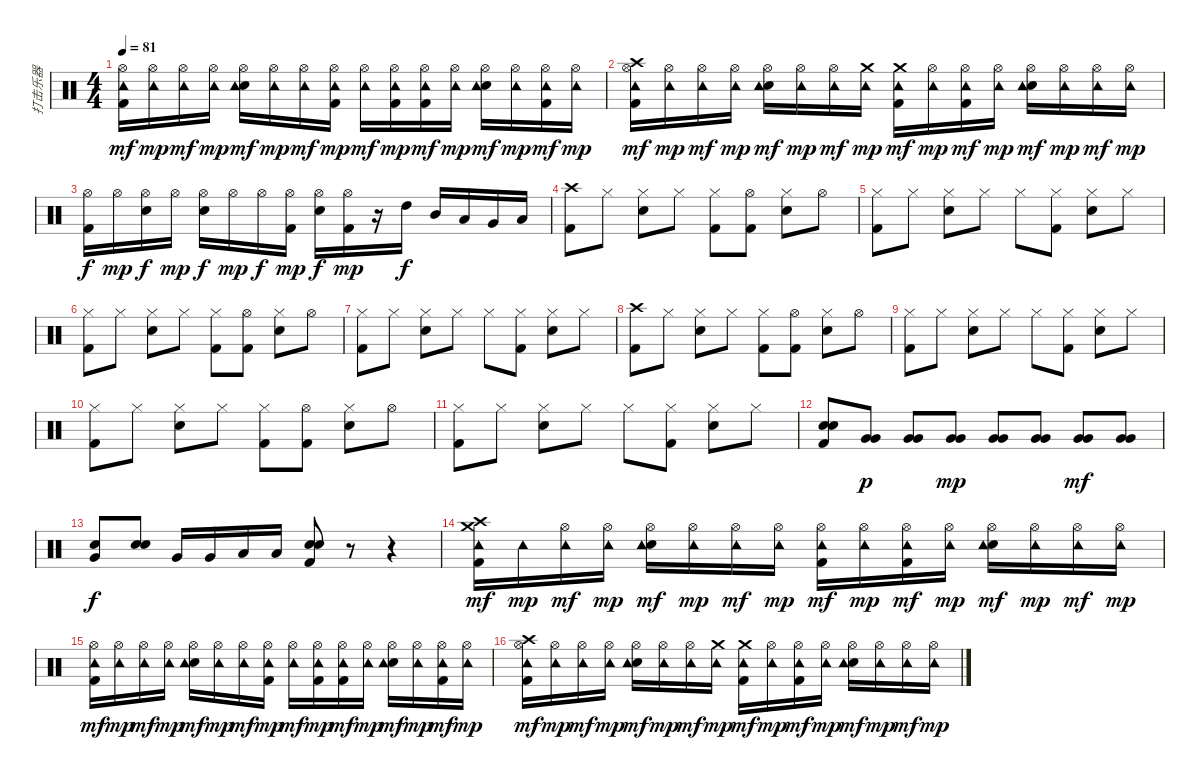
\track ("打击乐器" "打击乐器") {instrument percussion}
\staff {score}
\articulation defaults
\ts (4 4)
\tempo 81
\clef neutral
\ks c
("Hi-Hat (open)" "Tambourine (hit)" "Kick (hit) 2").16{dy mf} ("Hi-Hat (open)" "Tambourine (hit)").16{dy mp} ("Hi-Hat (open)" "Tambourine (hit)").16{dy mf} ("Hi-Hat (open)" "Tambourine (hit)").16{dy mp} ("Electric Snare (hit)" "Hi-Hat (open)" "Tambourine (hit)").16{dy mf} ("Hi-Hat (open)" "Tambourine (hit)").16{dy mp} ("Hi-Hat (open)" "Tambourine (hit)").16{dy mf} ("Hi-Hat (open)" "Tambourine (hit)" "Kick (hit) 2").16{dy mp} ("Hi-Hat (open)" "Tambourine (hit)").16{dy mf} ("Hi-Hat (open)" "Tambourine (hit)" "Kick (hit) 2").16{dy mp} ("Hi-Hat (open)" "Tambourine (hit)" "Kick (hit) 2").16{dy mf} ("Hi-Hat (open)" "Tambourine (hit)").16{dy mp} ("Electric Snare (hit)" "Hi-Hat (open)" "Tambourine (hit)").16{dy mf} ("Hi-Hat (open)" "Tambourine (hit)").16{dy mp} ("Hi-Hat (open)" "Tambourine (hit)" "Kick (hit) 2").16{dy mf} ("Hi-Hat (open)" "Tambourine (hit)").16{dy mp} |
("Crash high (hit)" "Hi-Hat (open)" "Tambourine (hit)" "Kick (hit) 2").16{dy mf} ("Hi-Hat (open)" "Tambourine (hit)").16{dy mp} ("Hi-Hat (open)" "Tambourine (hit)").16{dy mf} ("Hi-Hat (open)" "Tambourine (hit)").16{dy mp} ("Electric Snare (hit)" "Hi-Hat (open)" "Tambourine (hit)").16{dy mf} ("Hi-Hat (open)" "Tambourine (hit)").16{dy mp} ("Hi-Hat (open)" "Tambourine (hit)").16{dy mf} ("Crash medium (hit)" "Tambourine (hit)").16{dy mp} ("Crash medium (hit)" "Tambourine (hit)" "Kick (hit) 2").16{dy mf} ("Hi-Hat (open)" "Tambourine (hit)").16{dy mp} ("Hi-Hat (open)" "Tambourine (hit)" "Kick (hit) 2").16{dy mf} ("Hi-Hat (open)" "Tambourine (hit)").16{dy mp} ("Electric Snare (hit)" "Hi-Hat (open)" "Tambourine (hit)").16{dy mf} ("Hi-Hat (open)" "Tambourine (hit)").16{dy mp} ("Hi-Hat (open)" "Tambourine (hit)").16{dy mf} ("Hi-Hat (open)" "Tambourine (hit)").16{dy mp} |
("Hi-Hat (open)" "Kick (hit) 2").16{dy f} "Hi-Hat (open)".16{dy mp} ("Electric Snare (hit)" "Hi-Hat (open)").16{dy f} "Hi-Hat (open)".16{dy mp} ("Electric Snare (hit)" "Hi-Hat (open)").16{dy f} "Hi-Hat (open)".16{dy mp} "Hi-Hat (open)".16{dy f} ("Hi-Hat (open)" "Kick (hit) 2").16{dy mp} ("Electric Snare (hit)" "Hi-Hat (open)").16{dy f} ("Hi-Hat (open)" "Kick (hit) 2").16{dy mp} r.16 "High Tom (hit)".16{dy f} "Mid Tom (hit)".16 "Low Tom (hit)".16 "Very Low Tom (hit)".16 "Low Floor Tom (hit)".16 |
("Crash high (hit)" "Kick (hit) 2").8 "Hi-Hat (closed)".8 ("Electric Snare (hit)" "Hi-Hat (closed)").8 "Hi-Hat (closed)".8 ("Hi-Hat (closed)" "Kick (hit) 2").8 ("Hi-Hat (open)" "Kick (hit) 2").8 ("Electric Snare (hit)" "Hi-Hat (closed)").8 "Hi-Hat (open)".8 |
("Hi-Hat (closed)" "Kick (hit) 2").8 "Hi-Hat (closed)".8 ("Electric Snare (hit)" "Hi-Hat (closed)").8 "Hi-Hat (closed)".8 "Hi-Hat (closed)".8 ("Hi-Hat (closed)" "Kick (hit) 2").8 ("Electric Snare (hit)" "Hi-Hat (closed)").8 "Hi-Hat (closed)".8 |
("Hi-Hat (closed)" "Kick (hit) 2").8 "Hi-Hat (closed)".8 ("Electric Snare (hit)" "Hi-Hat (closed)").8 "Hi-Hat (closed)".8 ("Hi-Hat (closed)" "Kick (hit) 2").8 ("Hi-Hat (open)" "Kick (hit) 2").8 ("Electric Snare (hit)" "Hi-Hat (closed)").8 "Hi-Hat (open)".8 |
("Hi-Hat (closed)" "Kick (hit) 2").8 "Hi-Hat (closed)".8 ("Electric Snare (hit)" "Hi-Hat (closed)").8 "Hi-Hat (closed)".8 "Hi-Hat (closed)".8 ("Hi-Hat (closed)" "Kick (hit) 2").8 ("Electric Snare (hit)" "Hi-Hat (closed)").8 "Hi-Hat (closed)".8 |
("Crash high (hit)" "Kick (hit) 2").8 "Hi-Hat (closed)".8 ("Electric Snare (hit)" "Hi-Hat (closed)").8 "Hi-Hat (closed)".8 ("Hi-Hat (closed)" "Kick (hit) 2").8 ("Hi-Hat (open)" "Kick (hit) 2").8 ("Electric Snare (hit)" "Hi-Hat (closed)").8 "Hi-Hat (open)".8 |
("Hi-Hat (closed)" "Kick (hit) 2").8 "Hi-Hat (closed)".8 ("Electric Snare (hit)" "Hi-Hat (closed)").8 "Hi-Hat (closed)".8 "Hi-Hat (closed)".8 ("Hi-Hat (closed)" "Kick (hit) 2").8 ("Electric Snare (hit)" "Hi-Hat (closed)").8 "Hi-Hat (closed)".8 |
("Hi-Hat (closed)" "Kick (hit) 2").8 "Hi-Hat (closed)".8 ("Electric Snare (hit)" "Hi-Hat (closed)").8 "Hi-Hat (closed)".8 ("Hi-Hat (closed)" "Kick (hit) 2").8 ("Hi-Hat (open)" "Kick (hit) 2").8 ("Electric Snare (hit)" "Hi-Hat (closed)").8 "Hi-Hat (open)".8 |
("Hi-Hat (closed)" "Kick (hit) 2").8 "Hi-Hat (closed)".8 ("Electric Snare (hit)" "Hi-Hat (closed)").8 "Hi-Hat (closed)".8 "Hi-Hat (closed)".8 ("Hi-Hat (closed)" "Kick (hit) 2").8 ("Electric Snare (hit)" "Hi-Hat (closed)").8 "Hi-Hat (closed)".8 |
("Electric Snare (hit)" "Electric Snare (hit)" "Kick (hit) 2").8 ("Very Low Tom (hit)" "Very Low Tom (hit)").8{dy p} ("Very Low Tom (hit)" "Very Low Tom (hit)").8 ("Very Low Tom (hit)" "Very Low Tom (hit)").8{dy mp} ("Very Low Tom (hit)" "Very Low Tom (hit)").8 ("Very Low Tom (hit)" "Very Low Tom (hit)").8 ("Very Low Tom (hit)" "Very Low Tom (hit)").8{dy mf} ("Very Low Tom (hit)" "Very Low Tom (hit)").8 |
("Very Low Tom (hit)" "Electric Snare (hit)").8{dy f} ("Electric Snare (hit)" "Electric Snare (hit)").8{bd 120} "Very Low Tom (hit)".16 "Very Low Tom (hit)".16 "Low Floor Tom (hit)".16 "Low Floor Tom (hit)".16 ("Electric Snare (hit)" "Electric Snare (hit)" "Kick (hit) 2").8 r.8 r.4 |
("Crash high (hit)" "Crash medium (hit)" "Tambourine (hit)" "Kick (hit) 2").16{dy mf} "Tambourine (hit)".16{dy mp} ("Hi-Hat (open)" "Tambourine (hit)").16{dy mf} ("Hi-Hat (open)" "Tambourine (hit)").16{dy mp} ("Electric Snare (hit)" "Hi-Hat (open)" "Tambourine (hit)").16{dy mf} ("Hi-Hat (open)" "Tambourine (hit)").16{dy mp} ("Hi-Hat (open)" "Tambourine (hit)").16{dy mf} ("Hi-Hat (open)" "Tambourine (hit)").16{dy mp} ("Hi-Hat (open)" "Tambourine (hit)" "Kick (hit) 2").16{dy mf} ("Hi-Hat (open)" "Tambourine (hit)").16{dy mp} ("Hi-Hat (open)" "Tambourine (hit)" "Kick (hit) 2").16{dy mf} ("Hi-Hat (open)" "Tambourine (hit)").16{dy mp} ("Electric Snare (hit)" "Hi-Hat (open)" "Tambourine (hit)").16{dy mf} ("Hi-Hat (open)" "Tambourine (hit)").16{dy mp} ("Hi-Hat (open)" "Tambourine (hit)").16{dy mf} ("Hi-Hat (open)" "Tambourine (hit)").16{dy mp} |
("Hi-Hat (open)" "Tambourine (hit)" "Kick (hit) 2").16{dy mf} ("Hi-Hat (open)" "Tambourine (hit)").16{dy mp} ("Hi-Hat (open)" "Tambourine (hit)").16{dy mf} ("Hi-Hat (open)" "Tambourine (hit)").16{dy mp} ("Electric Snare (hit)" "Hi-Hat (open)" "Tambourine (hit)").16{dy mf} ("Hi-Hat (open)" "Tambourine (hit)").16{dy mp} ("Hi-Hat (open)" "Tambourine (hit)").16{dy mf} ("Hi-Hat (open)" "Tambourine (hit)" "Kick (hit) 2").16{dy mp} ("Hi-Hat (open)" "Tambourine (hit)").16{dy mf} ("Hi-Hat (open)" "Tambourine (hit)" "Kick (hit) 2").16{dy mp} ("Hi-Hat (open)" "Tambourine (hit)" "Kick (hit) 2").16{dy mf} ("Hi-Hat (open)" "Tambourine (hit)").16{dy mp} ("Electric Snare (hit)" "Hi-Hat (open)" "Tambourine (hit)").16{dy mf} ("Hi-Hat (open)" "Tambourine (hit)").16{dy mp} ("Hi-Hat (open)" "Tambourine (hit)" "Kick (hit) 2").16{dy mf} ("Hi-Hat (open)" "Tambourine (hit)").16{dy mp} |
("Crash high (hit)" "Hi-Hat (open)" "Tambourine (hit)" "Kick (hit) 2").16{dy mf} ("Hi-Hat (open)" "Tambourine (hit)").16{dy mp} ("Hi-Hat (open)" "Tambourine (hit)").16{dy mf} ("Hi-Hat (open)" "Tambourine (hit)").16{dy mp} ("Electric Snare (hit)" "Hi-Hat (open)" "Tambourine (hit)").16{dy mf} ("Hi-Hat (open)" "Tambourine (hit)").16{dy mp} ("Hi-Hat (open)" "Tambourine (hit)").16{dy mf} ("Crash medium (hit)" "Tambourine (hit)").16{dy mp} ("Crash medium (hit)" "Tambourine (hit)" "Kick (hit) 2").16{dy mf} ("Hi-Hat (open)" "Tambourine (hit)").16{dy mp} ("Hi-Hat (open)" "Tambourine (hit)" "Kick (hit) 2").16{dy mf} ("Hi-Hat (open)" "Tambourine (hit)").16{dy mp} ("Electric Snare (hit)" "Hi-Hat (open)" "Tambourine (hit)").16{dy mf} ("Hi-Hat (open)" "Tambourine (hit)").16{dy mp} ("Hi-Hat (open)" "Tambourine (hit)").16{dy mf} ("Hi-Hat (open)" "Tambourine (hit)").16{dy mp}
